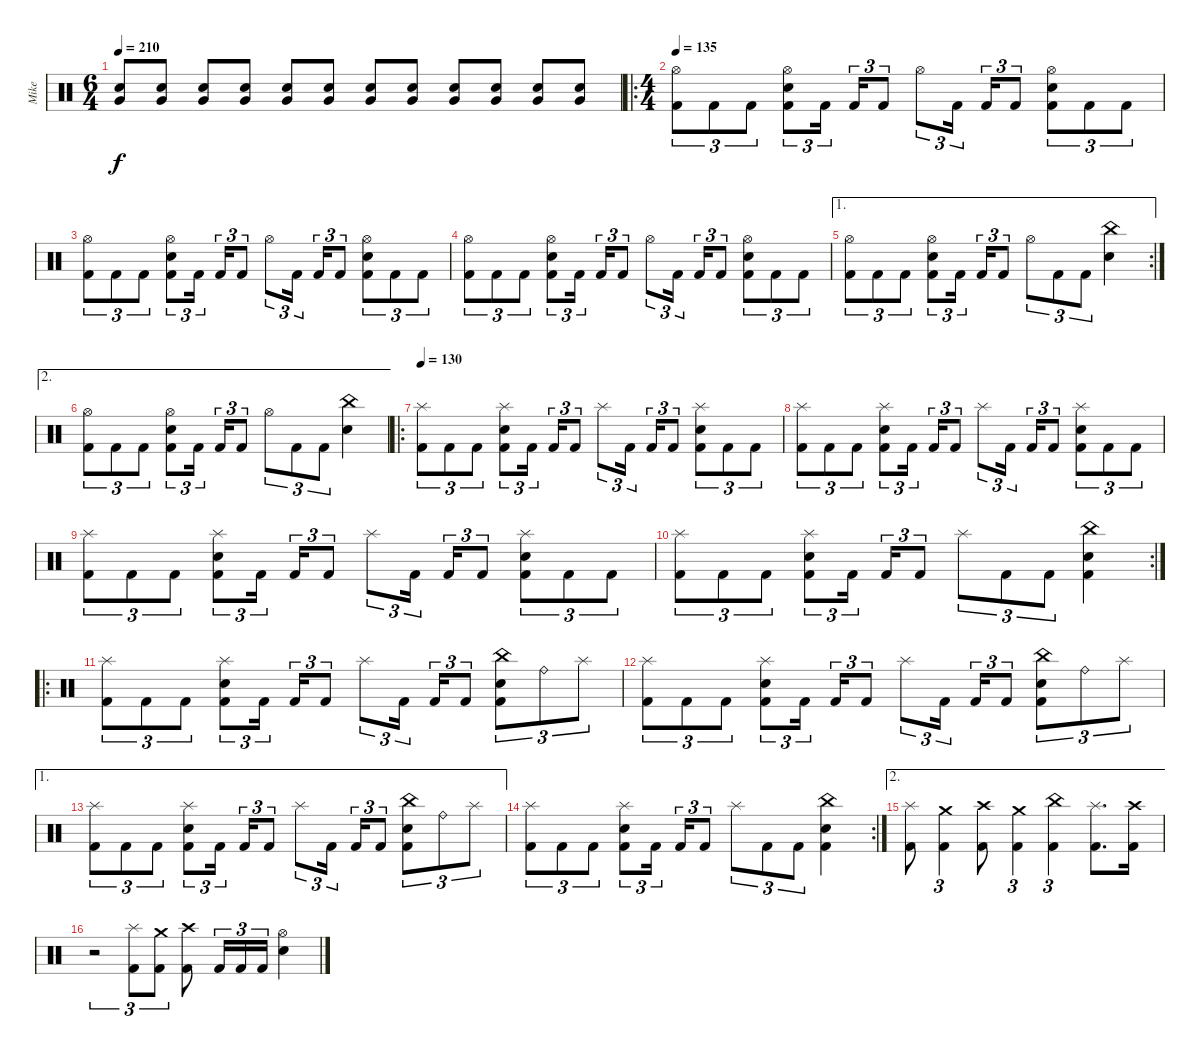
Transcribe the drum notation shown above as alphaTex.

\track ("Mike" "Mike") {instrument percussion}
\staff {score}
\articulation defaults
\ts (6 4)
\tempo 210
\clef neutral
\ks c
("Electric Snare (hit)" "Very Low Tom (hit)").8{dy f} ("Electric Snare (hit)" "Very Low Tom (hit)").8 ("Electric Snare (hit)" "Very Low Tom (hit)").8 ("Electric Snare (hit)" "Very Low Tom (hit)").8 ("Electric Snare (hit)" "Very Low Tom (hit)").8 ("Electric Snare (hit)" "Very Low Tom (hit)").8 ("Electric Snare (hit)" "Very Low Tom (hit)").8 ("Electric Snare (hit)" "Very Low Tom (hit)").8 ("Electric Snare (hit)" "Very Low Tom (hit)").8 ("Electric Snare (hit)" "Very Low Tom (hit)").8 ("Electric Snare (hit)" "Very Low Tom (hit)").8 ("Electric Snare (hit)" "Very Low Tom (hit)").8 |
\ro
\ts (4 4)
\tempo 135
("Kick (hit) 2" "Hi-Hat (open)").8{tu (3 2)} "Kick (hit) 2".8{tu (3 2)} "Kick (hit) 2".8{tu (3 2)} ("Kick (hit) 2" "Electric Snare (hit)" "Hi-Hat (open)").8{tu (3 2)} "Kick (hit) 2".16{tu (3 2) beam splitsecondary} "Kick (hit) 2".16{tu (3 2)} "Kick (hit) 2".8{tu (3 2)} "Hi-Hat (open)".8{tu (3 2)} "Kick (hit) 2".16{tu (3 2) beam splitsecondary} "Kick (hit) 2".16{tu (3 2)} "Kick (hit) 2".8{tu (3 2)} ("Kick (hit) 2" "Electric Snare (hit)" "Hi-Hat (open)").8{tu (3 2)} "Kick (hit) 2".8{tu (3 2)} "Kick (hit) 2".8{tu (3 2)} |
("Kick (hit) 2" "Hi-Hat (open)").8{tu (3 2)} "Kick (hit) 2".8{tu (3 2)} "Kick (hit) 2".8{tu (3 2)} ("Kick (hit) 2" "Electric Snare (hit)" "Hi-Hat (open)").8{tu (3 2)} "Kick (hit) 2".16{tu (3 2) beam splitsecondary} "Kick (hit) 2".16{tu (3 2)} "Kick (hit) 2".8{tu (3 2)} "Hi-Hat (open)".8{tu (3 2)} "Kick (hit) 2".16{tu (3 2) beam splitsecondary} "Kick (hit) 2".16{tu (3 2)} "Kick (hit) 2".8{tu (3 2)} ("Kick (hit) 2" "Electric Snare (hit)" "Hi-Hat (open)").8{tu (3 2)} "Kick (hit) 2".8{tu (3 2)} "Kick (hit) 2".8{tu (3 2)} |
("Kick (hit) 2" "Hi-Hat (open)").8{tu (3 2)} "Kick (hit) 2".8{tu (3 2)} "Kick (hit) 2".8{tu (3 2)} ("Kick (hit) 2" "Electric Snare (hit)" "Hi-Hat (open)").8{tu (3 2)} "Kick (hit) 2".16{tu (3 2) beam splitsecondary} "Kick (hit) 2".16{tu (3 2)} "Kick (hit) 2".8{tu (3 2)} "Hi-Hat (open)".8{tu (3 2)} "Kick (hit) 2".16{tu (3 2) beam splitsecondary} "Kick (hit) 2".16{tu (3 2)} "Kick (hit) 2".8{tu (3 2)} ("Kick (hit) 2" "Electric Snare (hit)" "Hi-Hat (open)").8{tu (3 2)} "Kick (hit) 2".8{tu (3 2)} "Kick (hit) 2".8{tu (3 2)} |
\ae 1
\rc 2
("Kick (hit) 2" "Hi-Hat (open)").8{tu (3 2)} "Kick (hit) 2".8{tu (3 2)} "Kick (hit) 2".8{tu (3 2)} ("Kick (hit) 2" "Electric Snare (hit)" "Hi-Hat (open)").8{tu (3 2)} "Kick (hit) 2".16{tu (3 2) beam splitsecondary} "Kick (hit) 2".16{tu (3 2)} "Kick (hit) 2".8{tu (3 2)} "Hi-Hat (open)".8{tu (3 2)} "Kick (hit) 2".8{tu (3 2)} "Kick (hit) 2".8{tu (3 2)} ("Electric Snare (hit)" "China (hit)").4 |
\ae 2
("Kick (hit) 2" "Hi-Hat (open)").8{tu (3 2)} "Kick (hit) 2".8{tu (3 2)} "Kick (hit) 2".8{tu (3 2)} ("Kick (hit) 2" "Electric Snare (hit)" "Hi-Hat (open)").8{tu (3 2)} "Kick (hit) 2".16{tu (3 2) beam splitsecondary} "Kick (hit) 2".16{tu (3 2)} "Kick (hit) 2".8{tu (3 2)} "Hi-Hat (open)".8{tu (3 2)} "Kick (hit) 2".8{tu (3 2)} "Kick (hit) 2".8{tu (3 2)} ("Electric Snare (hit)" "China (hit)").4 |
\ro
\tempo 130
("Kick (hit) 2" "Splash (hit)").8{tu (3 2)} "Kick (hit) 2".8{tu (3 2)} "Kick (hit) 2".8{tu (3 2)} ("Kick (hit) 2" "Electric Snare (hit)" "Splash (hit)").8{tu (3 2)} "Kick (hit) 2".16{tu (3 2) beam splitsecondary} "Kick (hit) 2".16{tu (3 2)} "Kick (hit) 2".8{tu (3 2)} "Splash (hit)".8{tu (3 2)} "Kick (hit) 2".16{tu (3 2) beam splitsecondary} "Kick (hit) 2".16{tu (3 2)} "Kick (hit) 2".8{tu (3 2)} ("Kick (hit) 2" "Electric Snare (hit)" "Splash (hit)").8{tu (3 2)} "Kick (hit) 2".8{tu (3 2)} "Kick (hit) 2".8{tu (3 2)} |
("Kick (hit) 2" "Splash (hit)").8{tu (3 2)} "Kick (hit) 2".8{tu (3 2)} "Kick (hit) 2".8{tu (3 2)} ("Kick (hit) 2" "Electric Snare (hit)" "Splash (hit)").8{tu (3 2)} "Kick (hit) 2".16{tu (3 2) beam splitsecondary} "Kick (hit) 2".16{tu (3 2)} "Kick (hit) 2".8{tu (3 2)} "Splash (hit)".8{tu (3 2)} "Kick (hit) 2".16{tu (3 2) beam splitsecondary} "Kick (hit) 2".16{tu (3 2)} "Kick (hit) 2".8{tu (3 2)} ("Kick (hit) 2" "Electric Snare (hit)" "Splash (hit)").8{tu (3 2)} "Kick (hit) 2".8{tu (3 2)} "Kick (hit) 2".8{tu (3 2)} |
("Kick (hit) 2" "Splash (hit)").8{tu (3 2)} "Kick (hit) 2".8{tu (3 2)} "Kick (hit) 2".8{tu (3 2)} ("Kick (hit) 2" "Electric Snare (hit)" "Splash (hit)").8{tu (3 2)} "Kick (hit) 2".16{tu (3 2) beam splitsecondary} "Kick (hit) 2".16{tu (3 2)} "Kick (hit) 2".8{tu (3 2)} "Splash (hit)".8{tu (3 2)} "Kick (hit) 2".16{tu (3 2) beam splitsecondary} "Kick (hit) 2".16{tu (3 2)} "Kick (hit) 2".8{tu (3 2)} ("Kick (hit) 2" "Electric Snare (hit)" "Splash (hit)").8{tu (3 2)} "Kick (hit) 2".8{tu (3 2)} "Kick (hit) 2".8{tu (3 2)} |
\rc 2
("Kick (hit) 2" "Splash (hit)").8{tu (3 2)} "Kick (hit) 2".8{tu (3 2)} "Kick (hit) 2".8{tu (3 2)} ("Kick (hit) 2" "Electric Snare (hit)" "Splash (hit)").8{tu (3 2)} "Kick (hit) 2".16{tu (3 2) beam splitsecondary} "Kick (hit) 2".16{tu (3 2)} "Kick (hit) 2".8{tu (3 2)} "Splash (hit)".8{tu (3 2)} "Kick (hit) 2".8{tu (3 2)} "Kick (hit) 2".8{tu (3 2)} ("Kick (hit) 2" "Electric Snare (hit)" "China (hit)").4 |
\ro
("Kick (hit) 2" "Splash (hit)").8{tu (3 2)} "Kick (hit) 2".8{tu (3 2)} "Kick (hit) 2".8{tu (3 2)} ("Kick (hit) 2" "Electric Snare (hit)" "Splash (hit)").8{tu (3 2)} "Kick (hit) 2".16{tu (3 2) beam splitsecondary} "Kick (hit) 2".16{tu (3 2)} "Kick (hit) 2".8{tu (3 2)} "Splash (hit)".8{tu (3 2)} "Kick (hit) 2".16{tu (3 2) beam splitsecondary} "Kick (hit) 2".16{tu (3 2)} "Kick (hit) 2".8{tu (3 2)} ("Kick (hit) 2" "Electric Snare (hit)" "China (hit)").8{tu (3 2)} "Ride (bell)".8{tu (3 2)} "Splash (hit)".8{tu (3 2)} |
("Kick (hit) 2" "Splash (hit)").8{tu (3 2)} "Kick (hit) 2".8{tu (3 2)} "Kick (hit) 2".8{tu (3 2)} ("Kick (hit) 2" "Electric Snare (hit)" "Splash (hit)").8{tu (3 2)} "Kick (hit) 2".16{tu (3 2) beam splitsecondary} "Kick (hit) 2".16{tu (3 2)} "Kick (hit) 2".8{tu (3 2)} "Splash (hit)".8{tu (3 2)} "Kick (hit) 2".16{tu (3 2) beam splitsecondary} "Kick (hit) 2".16{tu (3 2)} "Kick (hit) 2".8{tu (3 2)} ("Kick (hit) 2" "Electric Snare (hit)" "China (hit)").8{tu (3 2)} "Ride (bell)".8{tu (3 2)} "Splash (hit)".8{tu (3 2)} |
\ae 1
("Kick (hit) 2" "Splash (hit)").8{tu (3 2)} "Kick (hit) 2".8{tu (3 2)} "Kick (hit) 2".8{tu (3 2)} ("Kick (hit) 2" "Electric Snare (hit)" "Splash (hit)").8{tu (3 2)} "Kick (hit) 2".16{tu (3 2) beam splitsecondary} "Kick (hit) 2".16{tu (3 2)} "Kick (hit) 2".8{tu (3 2)} "Splash (hit)".8{tu (3 2)} "Kick (hit) 2".16{tu (3 2) beam splitsecondary} "Kick (hit) 2".16{tu (3 2)} "Kick (hit) 2".8{tu (3 2)} ("Kick (hit) 2" "Electric Snare (hit)" "China (hit)").8{tu (3 2)} "Ride (bell)".8{tu (3 2)} "Splash (hit)".8{tu (3 2)} |
\rc 2
("Kick (hit) 2" "Splash (hit)").8{tu (3 2)} "Kick (hit) 2".8{tu (3 2)} "Kick (hit) 2".8{tu (3 2)} ("Kick (hit) 2" "Electric Snare (hit)" "Splash (hit)").8{tu (3 2)} "Kick (hit) 2".16{tu (3 2) beam splitsecondary} "Kick (hit) 2".16{tu (3 2)} "Kick (hit) 2".8{tu (3 2)} "Splash (hit)".8{tu (3 2)} "Kick (hit) 2".8{tu (3 2)} "Kick (hit) 2".8{tu (3 2)} ("Kick (hit) 2" "Electric Snare (hit)" "China (hit)").4 |
\ae 2
("Kick (hit) 2" "Splash (hit)").8 ("Kick (hit) 2" "Crash medium (hit)").4{tu (3 2)} ("Kick (hit) 2" "Crash high (hit)").8 ("Kick (hit) 2" "Crash medium (hit)").4{tu (3 2)} ("Kick (hit) 2" "China (hit)").4{tu (3 2)} ("Kick (hit) 2" "Splash (hit)").8{d} ("Kick (hit) 2" "Crash high (hit)").16 |
r.2{tu (3 2)} ("Kick (hit) 2" "Splash (hit)").8{tu (3 2)} ("Kick (hit) 2" "Crash medium (hit)").8{tu (3 2)} ("Kick (hit) 2" "Crash high (hit)").8 "Kick (hit) 2".16{tu (3 2)} "Kick (hit) 2".16{tu (3 2)} "Kick (hit) 2".16{tu (3 2)} ("Electric Snare (hit)" "Hi-Hat (open)").4
